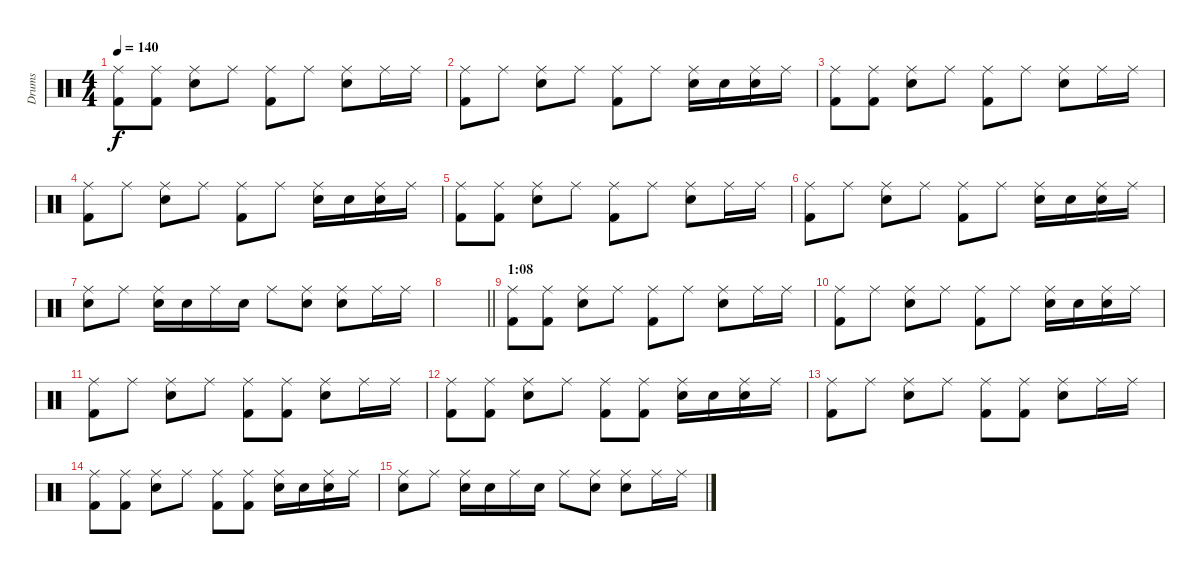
\track ("Drums" "Drums") {instrument percussion}
\staff {score}
\articulation defaults
\ts (4 4)
\tempo 140
\clef neutral
\ks c
("Ride (middle)" "Kick (hit) 2").8{dy f} ("Ride (middle)" "Kick (hit) 2").8 ("Ride (middle)" "Electric Snare (hit)").8 "Ride (middle)".8 ("Ride (middle)" "Kick (hit) 2").8 "Ride (middle)".8 ("Ride (middle)" "Electric Snare (hit)").8 "Ride (middle)".16 "Ride (middle)".16 |
("Ride (middle)" "Kick (hit) 2").8 "Ride (middle)".8 ("Ride (middle)" "Electric Snare (hit)").8 "Ride (middle)".8 ("Ride (middle)" "Kick (hit) 2").8 "Ride (middle)".8 ("Ride (middle)" "Electric Snare (hit)").16 "Electric Snare (hit)".16 ("Ride (middle)" "Electric Snare (hit)").16 "Ride (middle)".16 |
("Ride (middle)" "Kick (hit) 2").8 ("Ride (middle)" "Kick (hit) 2").8 ("Ride (middle)" "Electric Snare (hit)").8 "Ride (middle)".8 ("Ride (middle)" "Kick (hit) 2").8 "Ride (middle)".8 ("Ride (middle)" "Electric Snare (hit)").8 "Ride (middle)".16 "Ride (middle)".16 |
("Ride (middle)" "Kick (hit) 2").8 "Ride (middle)".8 ("Ride (middle)" "Electric Snare (hit)").8 "Ride (middle)".8 ("Ride (middle)" "Kick (hit) 2").8 "Ride (middle)".8 ("Ride (middle)" "Electric Snare (hit)").16 "Electric Snare (hit)".16 ("Ride (middle)" "Electric Snare (hit)").16 "Ride (middle)".16 |
("Ride (middle)" "Kick (hit) 2").8 ("Ride (middle)" "Kick (hit) 2").8 ("Ride (middle)" "Electric Snare (hit)").8 "Ride (middle)".8 ("Ride (middle)" "Kick (hit) 2").8 "Ride (middle)".8 ("Ride (middle)" "Electric Snare (hit)").8 "Ride (middle)".16 "Ride (middle)".16 |
("Ride (middle)" "Kick (hit) 2").8 "Ride (middle)".8 ("Ride (middle)" "Electric Snare (hit)").8 "Ride (middle)".8 ("Ride (middle)" "Kick (hit) 2").8 "Ride (middle)".8 ("Ride (middle)" "Electric Snare (hit)").16 "Electric Snare (hit)".16 ("Ride (middle)" "Electric Snare (hit)").16 "Ride (middle)".16 |
("Ride (middle)" "Electric Snare (hit)").8 "Ride (middle)".8 ("Ride (middle)" "Electric Snare (hit)").16 "Electric Snare (hit)".16 "Ride (middle)".16 "Electric Snare (hit)".16 "Ride (middle)".8 ("Ride (middle)" "Electric Snare (hit)").8 ("Ride (middle)" "Electric Snare (hit)").8 "Ride (middle)".16 "Ride (middle)".16 |
\barLineRight lightlight
|
\section ("" "1:08")
("Ride (middle)" "Kick (hit) 2").8 ("Ride (middle)" "Kick (hit) 2").8 ("Ride (middle)" "Electric Snare (hit)").8 "Ride (middle)".8 ("Ride (middle)" "Kick (hit) 2").8 "Ride (middle)".8 ("Ride (middle)" "Electric Snare (hit)").8 "Ride (middle)".16 "Ride (middle)".16 |
("Ride (middle)" "Kick (hit) 2").8 "Ride (middle)".8 ("Ride (middle)" "Electric Snare (hit)").8 "Ride (middle)".8 ("Ride (middle)" "Kick (hit) 2").8 "Ride (middle)".8 ("Ride (middle)" "Electric Snare (hit)").16 "Electric Snare (hit)".16 ("Ride (middle)" "Electric Snare (hit)").16 "Ride (middle)".16 |
("Ride (middle)" "Kick (hit) 2").8 "Ride (middle)".8 ("Ride (middle)" "Electric Snare (hit)").8 "Ride (middle)".8 ("Ride (middle)" "Kick (hit) 2").8 ("Ride (middle)" "Kick (hit) 2").8 ("Ride (middle)" "Electric Snare (hit)").8 "Ride (middle)".16 "Ride (middle)".16 |
("Ride (middle)" "Kick (hit) 2").8 ("Ride (middle)" "Kick (hit) 2").8 ("Ride (middle)" "Electric Snare (hit)").8 "Ride (middle)".8 ("Ride (middle)" "Kick (hit) 2").8 ("Ride (middle)" "Kick (hit) 2").8 ("Ride (middle)" "Electric Snare (hit)").16 "Electric Snare (hit)".16 ("Ride (middle)" "Electric Snare (hit)").16 "Ride (middle)".16 |
("Ride (middle)" "Kick (hit) 2").8 "Ride (middle)".8 ("Ride (middle)" "Electric Snare (hit)").8 "Ride (middle)".8 ("Ride (middle)" "Kick (hit) 2").8 ("Ride (middle)" "Kick (hit) 2").8 ("Ride (middle)" "Electric Snare (hit)").8 "Ride (middle)".16 "Ride (middle)".16 |
("Ride (middle)" "Kick (hit) 2").8 ("Ride (middle)" "Kick (hit) 2").8 ("Ride (middle)" "Electric Snare (hit)").8 "Ride (middle)".8 ("Ride (middle)" "Kick (hit) 2").8 ("Ride (middle)" "Kick (hit) 2").8 ("Ride (middle)" "Electric Snare (hit)").16 "Electric Snare (hit)".16 ("Ride (middle)" "Electric Snare (hit)").16 "Ride (middle)".16 |
("Ride (middle)" "Electric Snare (hit)").8 "Ride (middle)".8 ("Ride (middle)" "Electric Snare (hit)").16 "Electric Snare (hit)".16 "Ride (middle)".16 "Electric Snare (hit)".16 "Ride (middle)".8 ("Ride (middle)" "Electric Snare (hit)").8 ("Ride (middle)" "Electric Snare (hit)").8 "Ride (middle)".16 "Ride (middle)".16
